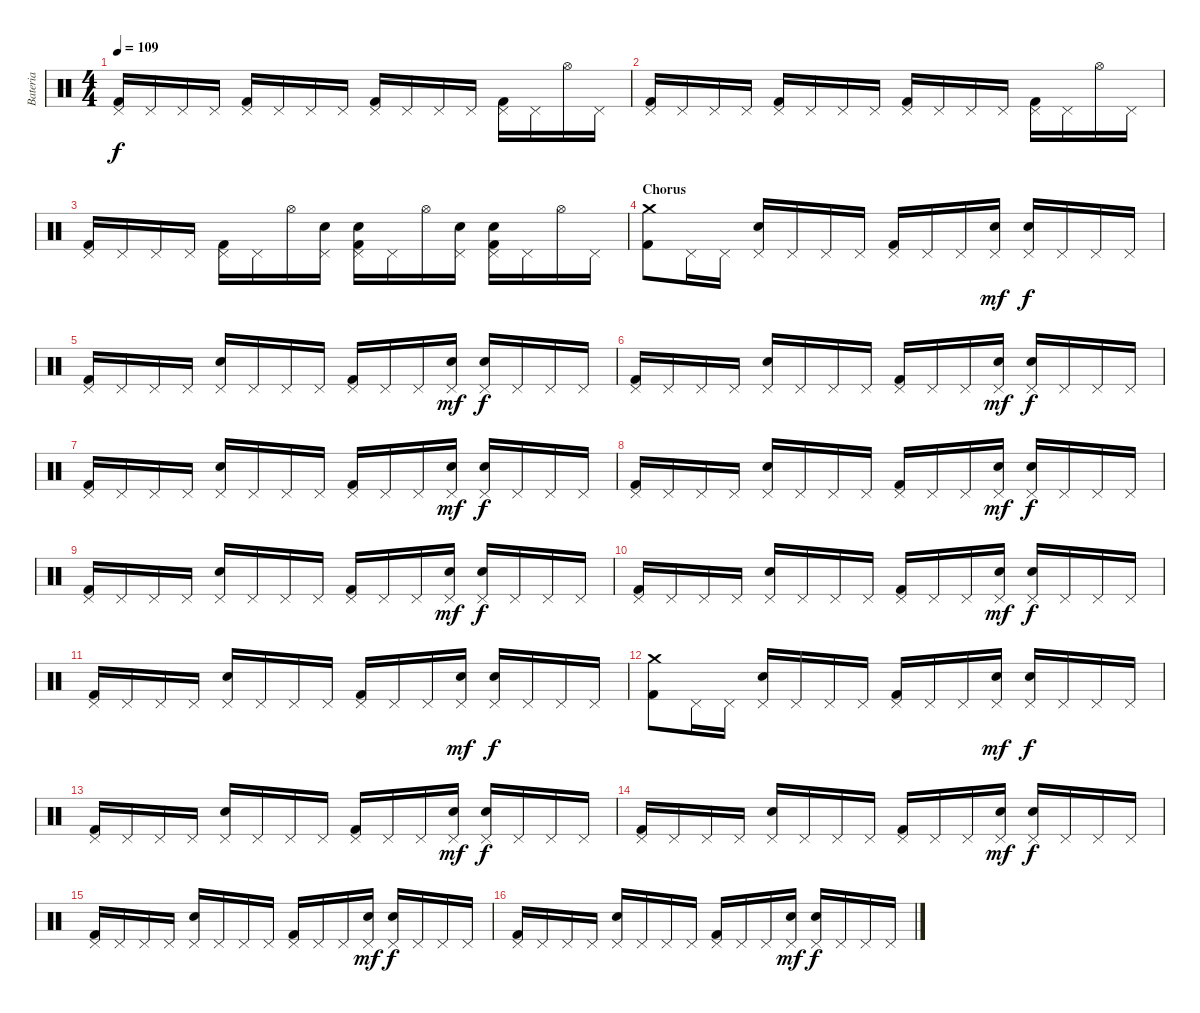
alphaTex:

\track ("Bateria" "Bateria") {instrument percussion}
\staff {score}
\articulation defaults
\ts (4 4)
\tempo 109
\clef neutral
\ks c
("Pedal Hi-Hat (hit)" "Kick (hit) 2").16{dy f} "Pedal Hi-Hat (hit)".16 "Pedal Hi-Hat (hit)".16 "Pedal Hi-Hat (hit)".16 ("Pedal Hi-Hat (hit)" "Kick (hit) 2").16 "Pedal Hi-Hat (hit)".16 "Pedal Hi-Hat (hit)".16 "Pedal Hi-Hat (hit)".16 ("Pedal Hi-Hat (hit)" "Kick (hit) 2").16 "Pedal Hi-Hat (hit)".16 "Pedal Hi-Hat (hit)".16 "Pedal Hi-Hat (hit)".16 ("Pedal Hi-Hat (hit)" "Kick (hit) 2").16 "Pedal Hi-Hat (hit)".16 "Hi-Hat (open)".16 "Pedal Hi-Hat (hit)".16 |
("Pedal Hi-Hat (hit)" "Kick (hit) 2").16 "Pedal Hi-Hat (hit)".16 "Pedal Hi-Hat (hit)".16 "Pedal Hi-Hat (hit)".16 ("Pedal Hi-Hat (hit)" "Kick (hit) 2").16 "Pedal Hi-Hat (hit)".16 "Pedal Hi-Hat (hit)".16 "Pedal Hi-Hat (hit)".16 ("Pedal Hi-Hat (hit)" "Kick (hit) 2").16 "Pedal Hi-Hat (hit)".16 "Pedal Hi-Hat (hit)".16 "Pedal Hi-Hat (hit)".16 ("Pedal Hi-Hat (hit)" "Kick (hit) 2").16 "Pedal Hi-Hat (hit)".16 "Hi-Hat (open)".16 "Pedal Hi-Hat (hit)".16 |
("Pedal Hi-Hat (hit)" "Kick (hit) 2").16 "Pedal Hi-Hat (hit)".16 "Pedal Hi-Hat (hit)".16 "Pedal Hi-Hat (hit)".16 ("Pedal Hi-Hat (hit)" "Kick (hit) 2").16 "Pedal Hi-Hat (hit)".16 "Hi-Hat (open)".16 ("Pedal Hi-Hat (hit)" "Electric Snare (hit)").16 ("Pedal Hi-Hat (hit)" "Electric Snare (hit)" "Kick (hit) 2").16 "Pedal Hi-Hat (hit)".16 "Hi-Hat (open)".16 ("Pedal Hi-Hat (hit)" "Electric Snare (hit)").16 ("Pedal Hi-Hat (hit)" "Electric Snare (hit)" "Kick (hit) 2").16 "Pedal Hi-Hat (hit)".16 "Hi-Hat (open)".16 "Pedal Hi-Hat (hit)".16 |
\section ("" "Chorus")
("Crash medium (hit)" "Kick (hit) 2").8 "Pedal Hi-Hat (hit)".16 "Pedal Hi-Hat (hit)".16 ("Pedal Hi-Hat (hit)" "Electric Snare (hit)").16 "Pedal Hi-Hat (hit)".16 "Pedal Hi-Hat (hit)".16 "Pedal Hi-Hat (hit)".16 ("Pedal Hi-Hat (hit)" "Kick (hit) 2").16 "Pedal Hi-Hat (hit)".16 "Pedal Hi-Hat (hit)".16 ("Pedal Hi-Hat (hit)" "Electric Snare (hit)").16{dy mf} ("Pedal Hi-Hat (hit)" "Electric Snare (hit)").16{dy f} "Pedal Hi-Hat (hit)".16 "Pedal Hi-Hat (hit)".16 "Pedal Hi-Hat (hit)".16 |
("Pedal Hi-Hat (hit)" "Kick (hit) 2").16 "Pedal Hi-Hat (hit)".16 "Pedal Hi-Hat (hit)".16 "Pedal Hi-Hat (hit)".16 ("Pedal Hi-Hat (hit)" "Electric Snare (hit)").16 "Pedal Hi-Hat (hit)".16 "Pedal Hi-Hat (hit)".16 "Pedal Hi-Hat (hit)".16 ("Pedal Hi-Hat (hit)" "Kick (hit) 2").16 "Pedal Hi-Hat (hit)".16 "Pedal Hi-Hat (hit)".16 ("Pedal Hi-Hat (hit)" "Electric Snare (hit)").16{dy mf} ("Pedal Hi-Hat (hit)" "Electric Snare (hit)").16{dy f} "Pedal Hi-Hat (hit)".16 "Pedal Hi-Hat (hit)".16 "Pedal Hi-Hat (hit)".16 |
("Pedal Hi-Hat (hit)" "Kick (hit) 2").16 "Pedal Hi-Hat (hit)".16 "Pedal Hi-Hat (hit)".16 "Pedal Hi-Hat (hit)".16 ("Pedal Hi-Hat (hit)" "Electric Snare (hit)").16 "Pedal Hi-Hat (hit)".16 "Pedal Hi-Hat (hit)".16 "Pedal Hi-Hat (hit)".16 ("Pedal Hi-Hat (hit)" "Kick (hit) 2").16 "Pedal Hi-Hat (hit)".16 "Pedal Hi-Hat (hit)".16 ("Pedal Hi-Hat (hit)" "Electric Snare (hit)").16{dy mf} ("Pedal Hi-Hat (hit)" "Electric Snare (hit)").16{dy f} "Pedal Hi-Hat (hit)".16 "Pedal Hi-Hat (hit)".16 "Pedal Hi-Hat (hit)".16 |
("Pedal Hi-Hat (hit)" "Kick (hit) 2").16 "Pedal Hi-Hat (hit)".16 "Pedal Hi-Hat (hit)".16 "Pedal Hi-Hat (hit)".16 ("Pedal Hi-Hat (hit)" "Electric Snare (hit)").16 "Pedal Hi-Hat (hit)".16 "Pedal Hi-Hat (hit)".16 "Pedal Hi-Hat (hit)".16 ("Pedal Hi-Hat (hit)" "Kick (hit) 2").16 "Pedal Hi-Hat (hit)".16 "Pedal Hi-Hat (hit)".16 ("Pedal Hi-Hat (hit)" "Electric Snare (hit)").16{dy mf} ("Pedal Hi-Hat (hit)" "Electric Snare (hit)").16{dy f} "Pedal Hi-Hat (hit)".16 "Pedal Hi-Hat (hit)".16 "Pedal Hi-Hat (hit)".16 |
("Pedal Hi-Hat (hit)" "Kick (hit) 2").16 "Pedal Hi-Hat (hit)".16 "Pedal Hi-Hat (hit)".16 "Pedal Hi-Hat (hit)".16 ("Pedal Hi-Hat (hit)" "Electric Snare (hit)").16 "Pedal Hi-Hat (hit)".16 "Pedal Hi-Hat (hit)".16 "Pedal Hi-Hat (hit)".16 ("Pedal Hi-Hat (hit)" "Kick (hit) 2").16 "Pedal Hi-Hat (hit)".16 "Pedal Hi-Hat (hit)".16 ("Pedal Hi-Hat (hit)" "Electric Snare (hit)").16{dy mf} ("Pedal Hi-Hat (hit)" "Electric Snare (hit)").16{dy f} "Pedal Hi-Hat (hit)".16 "Pedal Hi-Hat (hit)".16 "Pedal Hi-Hat (hit)".16 |
("Pedal Hi-Hat (hit)" "Kick (hit) 2").16 "Pedal Hi-Hat (hit)".16 "Pedal Hi-Hat (hit)".16 "Pedal Hi-Hat (hit)".16 ("Pedal Hi-Hat (hit)" "Electric Snare (hit)").16 "Pedal Hi-Hat (hit)".16 "Pedal Hi-Hat (hit)".16 "Pedal Hi-Hat (hit)".16 ("Pedal Hi-Hat (hit)" "Kick (hit) 2").16 "Pedal Hi-Hat (hit)".16 "Pedal Hi-Hat (hit)".16 ("Pedal Hi-Hat (hit)" "Electric Snare (hit)").16{dy mf} ("Pedal Hi-Hat (hit)" "Electric Snare (hit)").16{dy f} "Pedal Hi-Hat (hit)".16 "Pedal Hi-Hat (hit)".16 "Pedal Hi-Hat (hit)".16 |
("Pedal Hi-Hat (hit)" "Kick (hit) 2").16 "Pedal Hi-Hat (hit)".16 "Pedal Hi-Hat (hit)".16 "Pedal Hi-Hat (hit)".16 ("Pedal Hi-Hat (hit)" "Electric Snare (hit)").16 "Pedal Hi-Hat (hit)".16 "Pedal Hi-Hat (hit)".16 "Pedal Hi-Hat (hit)".16 ("Pedal Hi-Hat (hit)" "Kick (hit) 2").16 "Pedal Hi-Hat (hit)".16 "Pedal Hi-Hat (hit)".16 ("Pedal Hi-Hat (hit)" "Electric Snare (hit)").16{dy mf} ("Pedal Hi-Hat (hit)" "Electric Snare (hit)").16{dy f} "Pedal Hi-Hat (hit)".16 "Pedal Hi-Hat (hit)".16 "Pedal Hi-Hat (hit)".16 |
("Pedal Hi-Hat (hit)" "Kick (hit) 2").16 "Pedal Hi-Hat (hit)".16 "Pedal Hi-Hat (hit)".16 "Pedal Hi-Hat (hit)".16 ("Pedal Hi-Hat (hit)" "Electric Snare (hit)").16 "Pedal Hi-Hat (hit)".16 "Pedal Hi-Hat (hit)".16 "Pedal Hi-Hat (hit)".16 ("Pedal Hi-Hat (hit)" "Kick (hit) 2").16 "Pedal Hi-Hat (hit)".16 "Pedal Hi-Hat (hit)".16 ("Pedal Hi-Hat (hit)" "Electric Snare (hit)").16{dy mf} ("Pedal Hi-Hat (hit)" "Electric Snare (hit)").16{dy f} "Pedal Hi-Hat (hit)".16 "Pedal Hi-Hat (hit)".16 "Pedal Hi-Hat (hit)".16 |
("Crash medium (hit)" "Kick (hit) 2").8 "Pedal Hi-Hat (hit)".16 "Pedal Hi-Hat (hit)".16 ("Pedal Hi-Hat (hit)" "Electric Snare (hit)").16 "Pedal Hi-Hat (hit)".16 "Pedal Hi-Hat (hit)".16 "Pedal Hi-Hat (hit)".16 ("Pedal Hi-Hat (hit)" "Kick (hit) 2").16 "Pedal Hi-Hat (hit)".16 "Pedal Hi-Hat (hit)".16 ("Pedal Hi-Hat (hit)" "Electric Snare (hit)").16{dy mf} ("Pedal Hi-Hat (hit)" "Electric Snare (hit)").16{dy f} "Pedal Hi-Hat (hit)".16 "Pedal Hi-Hat (hit)".16 "Pedal Hi-Hat (hit)".16 |
("Pedal Hi-Hat (hit)" "Kick (hit) 2").16 "Pedal Hi-Hat (hit)".16 "Pedal Hi-Hat (hit)".16 "Pedal Hi-Hat (hit)".16 ("Pedal Hi-Hat (hit)" "Electric Snare (hit)").16 "Pedal Hi-Hat (hit)".16 "Pedal Hi-Hat (hit)".16 "Pedal Hi-Hat (hit)".16 ("Pedal Hi-Hat (hit)" "Kick (hit) 2").16 "Pedal Hi-Hat (hit)".16 "Pedal Hi-Hat (hit)".16 ("Pedal Hi-Hat (hit)" "Electric Snare (hit)").16{dy mf} ("Pedal Hi-Hat (hit)" "Electric Snare (hit)").16{dy f} "Pedal Hi-Hat (hit)".16 "Pedal Hi-Hat (hit)".16 "Pedal Hi-Hat (hit)".16 |
("Pedal Hi-Hat (hit)" "Kick (hit) 2").16 "Pedal Hi-Hat (hit)".16 "Pedal Hi-Hat (hit)".16 "Pedal Hi-Hat (hit)".16 ("Pedal Hi-Hat (hit)" "Electric Snare (hit)").16 "Pedal Hi-Hat (hit)".16 "Pedal Hi-Hat (hit)".16 "Pedal Hi-Hat (hit)".16 ("Pedal Hi-Hat (hit)" "Kick (hit) 2").16 "Pedal Hi-Hat (hit)".16 "Pedal Hi-Hat (hit)".16 ("Pedal Hi-Hat (hit)" "Electric Snare (hit)").16{dy mf} ("Pedal Hi-Hat (hit)" "Electric Snare (hit)").16{dy f} "Pedal Hi-Hat (hit)".16 "Pedal Hi-Hat (hit)".16 "Pedal Hi-Hat (hit)".16 |
("Pedal Hi-Hat (hit)" "Kick (hit) 2").16 "Pedal Hi-Hat (hit)".16 "Pedal Hi-Hat (hit)".16 "Pedal Hi-Hat (hit)".16 ("Pedal Hi-Hat (hit)" "Electric Snare (hit)").16 "Pedal Hi-Hat (hit)".16 "Pedal Hi-Hat (hit)".16 "Pedal Hi-Hat (hit)".16 ("Pedal Hi-Hat (hit)" "Kick (hit) 2").16 "Pedal Hi-Hat (hit)".16 "Pedal Hi-Hat (hit)".16 ("Pedal Hi-Hat (hit)" "Electric Snare (hit)").16{dy mf} ("Pedal Hi-Hat (hit)" "Electric Snare (hit)").16{dy f} "Pedal Hi-Hat (hit)".16 "Pedal Hi-Hat (hit)".16 "Pedal Hi-Hat (hit)".16 |
("Pedal Hi-Hat (hit)" "Kick (hit) 2").16 "Pedal Hi-Hat (hit)".16 "Pedal Hi-Hat (hit)".16 "Pedal Hi-Hat (hit)".16 ("Pedal Hi-Hat (hit)" "Electric Snare (hit)").16 "Pedal Hi-Hat (hit)".16 "Pedal Hi-Hat (hit)".16 "Pedal Hi-Hat (hit)".16 ("Pedal Hi-Hat (hit)" "Kick (hit) 2").16 "Pedal Hi-Hat (hit)".16 "Pedal Hi-Hat (hit)".16 ("Pedal Hi-Hat (hit)" "Electric Snare (hit)").16{dy mf} ("Pedal Hi-Hat (hit)" "Electric Snare (hit)").16{dy f} "Pedal Hi-Hat (hit)".16 "Pedal Hi-Hat (hit)".16 "Pedal Hi-Hat (hit)".16
